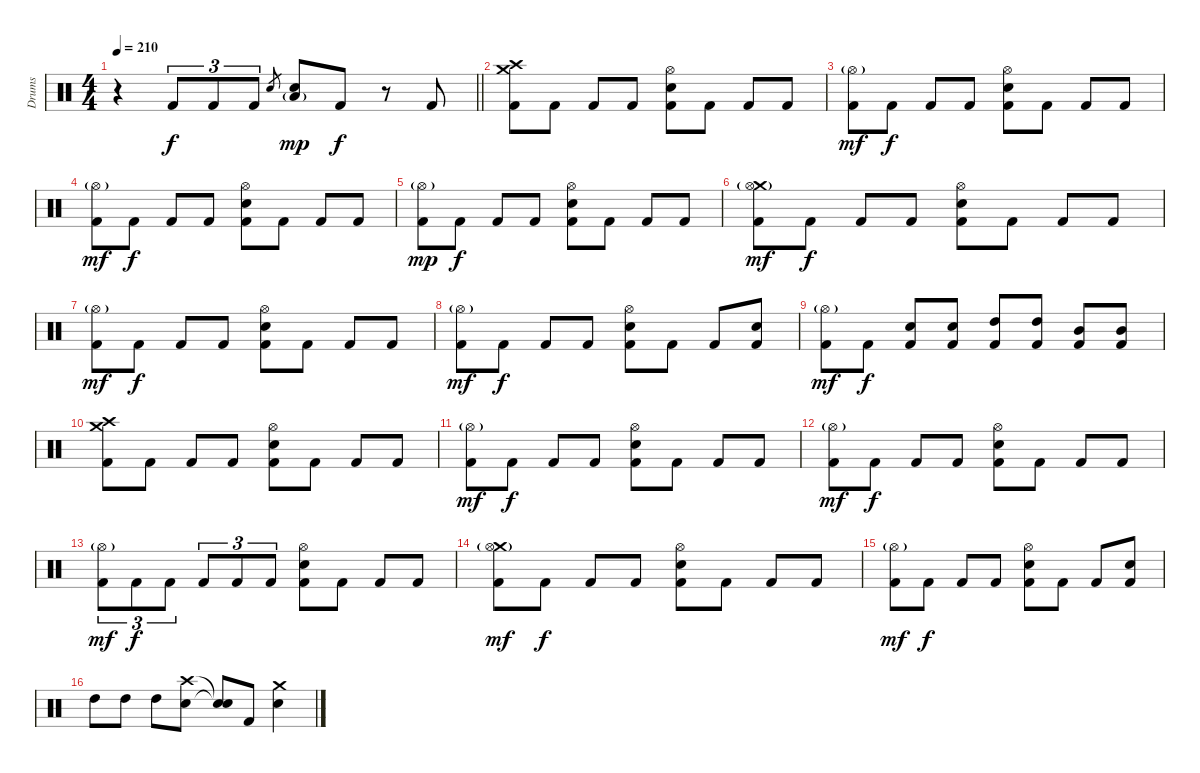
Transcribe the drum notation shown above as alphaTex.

\track ("Drums" "Drums") {instrument percussion}
\staff {score}
\articulation defaults
\ts (4 4)
\tempo 210
\clef neutral
\barLineRight lightlight
\ks c
r.4{dy f} "Kick (hit) 2".8{tu (3 2)} "Kick (hit) 2".8{tu (3 2)} "Kick (hit) 2".8{tu (3 2)} "Electric Snare (hit)".8{gr} ("Low Tom (hit)"{g} "Electric Snare (hit)").8{dy mp} "Kick (hit) 2".8{dy f} r.8 "Kick (hit) 2".8 |
("Crash high (hit)" "Crash medium (hit)" "Kick (hit) 2").8 "Kick (hit) 2".8 "Kick (hit) 2".8 "Kick (hit) 2".8 ("Hi-Hat (open)" "Electric Snare (hit)" "Kick (hit) 2").8 "Kick (hit) 2".8 "Kick (hit) 2".8 "Kick (hit) 2".8 |
("Hi-Hat (open)"{g} "Kick (hit) 2").8{dy mf} "Kick (hit) 2".8{dy f} "Kick (hit) 2".8 "Kick (hit) 2".8 ("Hi-Hat (open)" "Electric Snare (hit)" "Kick (hit) 2").8 "Kick (hit) 2".8 "Kick (hit) 2".8 "Kick (hit) 2".8 |
("Hi-Hat (open)"{g} "Kick (hit) 2").8{dy mf} "Kick (hit) 2".8{dy f} "Kick (hit) 2".8 "Kick (hit) 2".8 ("Hi-Hat (open)" "Electric Snare (hit)" "Kick (hit) 2").8 "Kick (hit) 2".8 "Kick (hit) 2".8 "Kick (hit) 2".8 |
("Hi-Hat (open)"{g} "Kick (hit) 2").8{dy mp} "Kick (hit) 2".8{dy f} "Kick (hit) 2".8 "Kick (hit) 2".8 ("Hi-Hat (open)" "Electric Snare (hit)" "Kick (hit) 2").8 "Kick (hit) 2".8 "Kick (hit) 2".8 "Kick (hit) 2".8 |
("Crash medium (hit)" "Hi-Hat (open)"{g} "Kick (hit) 2").8{dy mf} "Kick (hit) 2".8{dy f} "Kick (hit) 2".8 "Kick (hit) 2".8 ("Hi-Hat (open)" "Electric Snare (hit)" "Kick (hit) 2").8 "Kick (hit) 2".8 "Kick (hit) 2".8 "Kick (hit) 2".8 |
("Hi-Hat (open)"{g} "Kick (hit) 2").8{dy mf} "Kick (hit) 2".8{dy f} "Kick (hit) 2".8 "Kick (hit) 2".8 ("Hi-Hat (open)" "Electric Snare (hit)" "Kick (hit) 2").8 "Kick (hit) 2".8 "Kick (hit) 2".8 "Kick (hit) 2".8 |
("Hi-Hat (open)"{g} "Kick (hit) 2").8{dy mf} "Kick (hit) 2".8{dy f} "Kick (hit) 2".8 "Kick (hit) 2".8 ("Hi-Hat (open)" "Electric Snare (hit)" "Kick (hit) 2").8 "Kick (hit) 2".8 "Kick (hit) 2".8 ("Electric Snare (hit)" "Kick (hit) 2").8 |
("Hi-Hat (open)"{g} "Kick (hit) 2").8{dy mf} "Kick (hit) 2".8{dy f} ("Electric Snare (hit)" "Kick (hit) 2").8 ("Electric Snare (hit)" "Kick (hit) 2").8 ("High Tom (hit)" "Kick (hit) 2").8 ("High Tom (hit)" "Kick (hit) 2").8 ("Mid Tom (hit)" "Kick (hit) 2").8 ("Mid Tom (hit)" "Kick (hit) 2").8 |
("Crash high (hit)" "Crash medium (hit)" "Kick (hit) 2").8 "Kick (hit) 2".8 "Kick (hit) 2".8 "Kick (hit) 2".8 ("Hi-Hat (open)" "Electric Snare (hit)" "Kick (hit) 2").8 "Kick (hit) 2".8 "Kick (hit) 2".8 "Kick (hit) 2".8 |
("Hi-Hat (open)"{g} "Kick (hit) 2").8{dy mf} "Kick (hit) 2".8{dy f} "Kick (hit) 2".8 "Kick (hit) 2".8 ("Hi-Hat (open)" "Electric Snare (hit)" "Kick (hit) 2").8 "Kick (hit) 2".8 "Kick (hit) 2".8 "Kick (hit) 2".8 |
("Hi-Hat (open)"{g} "Kick (hit) 2").8{dy mf} "Kick (hit) 2".8{dy f} "Kick (hit) 2".8 "Kick (hit) 2".8 ("Hi-Hat (open)" "Electric Snare (hit)" "Kick (hit) 2").8 "Kick (hit) 2".8 "Kick (hit) 2".8 "Kick (hit) 2".8 |
("Hi-Hat (open)"{g} "Kick (hit) 2").8{tu (3 2) dy mf} "Kick (hit) 2".8{tu (3 2) dy f} "Kick (hit) 2".8{tu (3 2)} "Kick (hit) 2".8{tu (3 2)} "Kick (hit) 2".8{tu (3 2)} "Kick (hit) 2".8{tu (3 2)} ("Hi-Hat (open)" "Electric Snare (hit)" "Kick (hit) 2").8 "Kick (hit) 2".8 "Kick (hit) 2".8 "Kick (hit) 2".8 |
("Crash medium (hit)" "Hi-Hat (open)"{g} "Kick (hit) 2").8{dy mf} "Kick (hit) 2".8{dy f} "Kick (hit) 2".8 "Kick (hit) 2".8 ("Hi-Hat (open)" "Electric Snare (hit)" "Kick (hit) 2").8 "Kick (hit) 2".8 "Kick (hit) 2".8 "Kick (hit) 2".8 |
("Hi-Hat (open)"{g} "Kick (hit) 2").8{dy mf} "Kick (hit) 2".8{dy f} "Kick (hit) 2".8 "Kick (hit) 2".8 ("Hi-Hat (open)" "Electric Snare (hit)" "Kick (hit) 2").8 "Kick (hit) 2".8 "Kick (hit) 2".8 ("Electric Snare (hit)" "Kick (hit) 2").8 |
"High Tom (hit)".8 "High Tom (hit)".8 "High Tom (hit)".8 ("Crash high (hit)" "Electric Snare (hit)").8 ("Snare (hit)"{t} "Snare (hit)"{t}).8 "Kick (hit) 2".8 ("Crash medium (hit)" "Electric Snare (hit)").4
